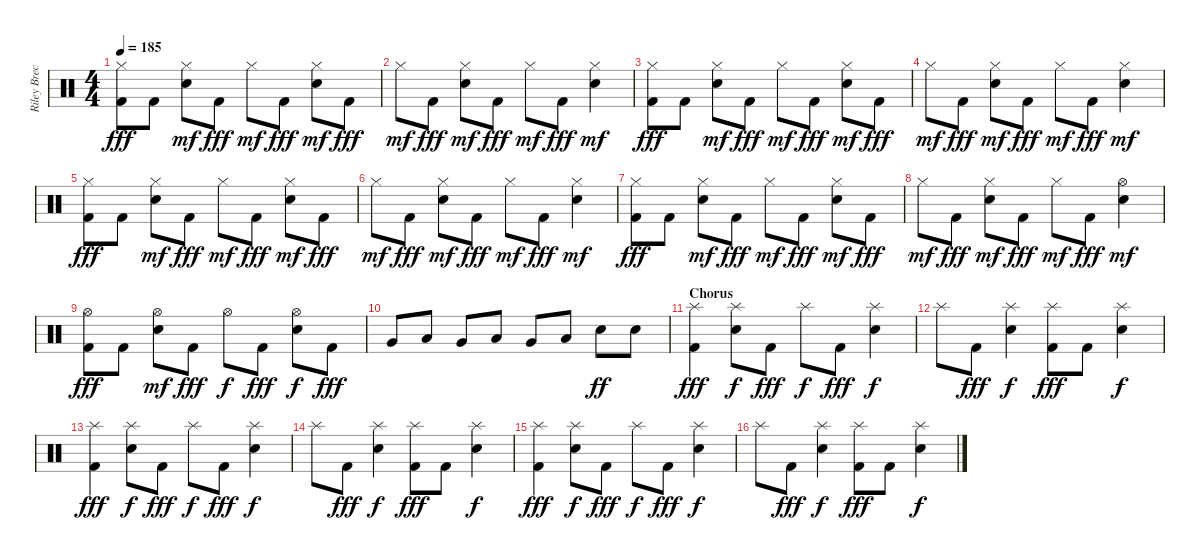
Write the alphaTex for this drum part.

\track ("Riley Breckenridge (Drums)" "Riley Brec") {instrument percussion}
\staff {score}
\articulation defaults
\ts (4 4)
\tempo 185
\clef neutral
\ks c
("Hi-Hat (closed)" "Kick (hit) 2").8{dy fff} "Kick (hit) 2".8 ("Hi-Hat (closed)" "Electric Snare (hit)").8{dy mf} "Kick (hit) 2".8{dy fff} "Hi-Hat (closed)".8{dy mf} "Kick (hit) 2".8{dy fff} ("Hi-Hat (closed)" "Electric Snare (hit)").8{dy mf} "Kick (hit) 2".8{dy fff} |
"Hi-Hat (closed)".8{dy mf} "Kick (hit) 2".8{dy fff} ("Hi-Hat (closed)" "Electric Snare (hit)").8{dy mf} "Kick (hit) 2".8{dy fff} "Hi-Hat (closed)".8{dy mf} "Kick (hit) 2".8{dy fff} ("Hi-Hat (closed)" "Electric Snare (hit)").4{dy mf} |
("Hi-Hat (closed)" "Kick (hit) 2").8{dy fff} "Kick (hit) 2".8 ("Hi-Hat (closed)" "Electric Snare (hit)").8{dy mf} "Kick (hit) 2".8{dy fff} "Hi-Hat (closed)".8{dy mf} "Kick (hit) 2".8{dy fff} ("Hi-Hat (closed)" "Electric Snare (hit)").8{dy mf} "Kick (hit) 2".8{dy fff} |
"Hi-Hat (closed)".8{dy mf} "Kick (hit) 2".8{dy fff} ("Hi-Hat (closed)" "Electric Snare (hit)").8{dy mf} "Kick (hit) 2".8{dy fff} "Hi-Hat (closed)".8{dy mf} "Kick (hit) 2".8{dy fff} ("Hi-Hat (closed)" "Electric Snare (hit)").4{dy mf} |
("Hi-Hat (closed)" "Kick (hit) 2").8{dy fff} "Kick (hit) 2".8 ("Hi-Hat (closed)" "Electric Snare (hit)").8{dy mf} "Kick (hit) 2".8{dy fff} "Hi-Hat (closed)".8{dy mf} "Kick (hit) 2".8{dy fff} ("Hi-Hat (closed)" "Electric Snare (hit)").8{dy mf} "Kick (hit) 2".8{dy fff} |
"Hi-Hat (closed)".8{dy mf} "Kick (hit) 2".8{dy fff} ("Hi-Hat (closed)" "Electric Snare (hit)").8{dy mf} "Kick (hit) 2".8{dy fff} "Hi-Hat (closed)".8{dy mf} "Kick (hit) 2".8{dy fff} ("Hi-Hat (closed)" "Electric Snare (hit)").4{dy mf} |
("Hi-Hat (closed)" "Kick (hit) 2").8{dy fff} "Kick (hit) 2".8 ("Hi-Hat (closed)" "Electric Snare (hit)").8{dy mf} "Kick (hit) 2".8{dy fff} "Hi-Hat (closed)".8{dy mf} "Kick (hit) 2".8{dy fff} ("Hi-Hat (closed)" "Electric Snare (hit)").8{dy mf} "Kick (hit) 2".8{dy fff} |
"Hi-Hat (closed)".8{dy mf} "Kick (hit) 2".8{dy fff} ("Hi-Hat (closed)" "Electric Snare (hit)").8{dy mf} "Kick (hit) 2".8{dy fff} "Hi-Hat (closed)".8{dy mf} "Kick (hit) 2".8{dy fff} ("Hi-Hat (open)" "Electric Snare (hit)").4{dy mf} |
("Hi-Hat (open)" "Kick (hit) 2").8{dy fff} "Kick (hit) 2".8 ("Hi-Hat (open)" "Electric Snare (hit)").8{dy mf} "Kick (hit) 2".8{dy fff} "Hi-Hat (open)".8{dy f} "Kick (hit) 2".8{dy fff} ("Hi-Hat (open)" "Electric Snare (hit)").8{dy f} "Kick (hit) 2".8{dy fff} |
"Very Low Tom (hit)".8 "Low Floor Tom (hit)".8 "Very Low Tom (hit)".8 "Low Floor Tom (hit)".8 "Very Low Tom (hit)".8 "Low Floor Tom (hit)".8 "Electric Snare (hit)".8{dy ff} "Electric Snare (hit)".8 |
\section ("" "Chorus")
("Splash (hit)" "Kick (hit) 2").4{dy fff} ("Splash (hit)" "Electric Snare (hit)").8{dy f} "Kick (hit) 2".8{dy fff} "Splash (hit)".8{dy f} "Kick (hit) 2".8{dy fff} ("Splash (hit)" "Electric Snare (hit)").4{dy f} |
"Splash (hit)".8 "Kick (hit) 2".8{dy fff} ("Splash (hit)" "Electric Snare (hit)").4{dy f} ("Splash (hit)" "Kick (hit) 2").8{dy fff} "Kick (hit) 2".8 ("Splash (hit)" "Electric Snare (hit)").4{dy f} |
("Splash (hit)" "Kick (hit) 2").4{dy fff} ("Splash (hit)" "Electric Snare (hit)").8{dy f} "Kick (hit) 2".8{dy fff} "Splash (hit)".8{dy f} "Kick (hit) 2".8{dy fff} ("Splash (hit)" "Electric Snare (hit)").4{dy f} |
"Splash (hit)".8 "Kick (hit) 2".8{dy fff} ("Splash (hit)" "Electric Snare (hit)").4{dy f} ("Splash (hit)" "Kick (hit) 2").8{dy fff} "Kick (hit) 2".8 ("Splash (hit)" "Electric Snare (hit)").4{dy f} |
("Splash (hit)" "Kick (hit) 2").4{dy fff} ("Splash (hit)" "Electric Snare (hit)").8{dy f} "Kick (hit) 2".8{dy fff} "Splash (hit)".8{dy f} "Kick (hit) 2".8{dy fff} ("Splash (hit)" "Electric Snare (hit)").4{dy f} |
"Splash (hit)".8 "Kick (hit) 2".8{dy fff} ("Splash (hit)" "Electric Snare (hit)").4{dy f} ("Splash (hit)" "Kick (hit) 2").8{dy fff} "Kick (hit) 2".8 ("Splash (hit)" "Electric Snare (hit)").4{dy f}
